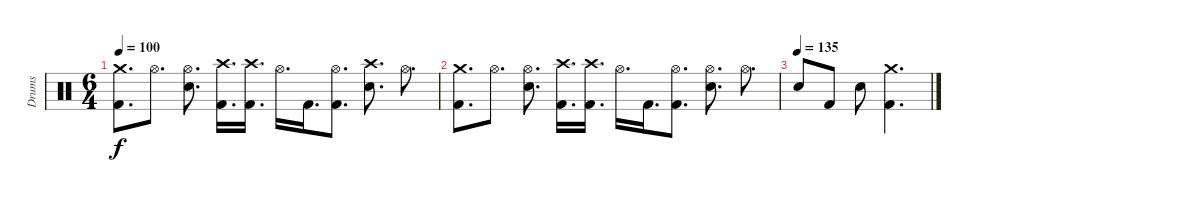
\track ("Drums" "Drums") {instrument percussion}
\staff {score}
\articulation defaults
\ts (6 4)
\tempo 100
\clef neutral
\ks c
("Crash medium (hit)" "Kick (hit) 2").8{d dy f} "Hi-Hat (open)".8{d} ("Hi-Hat (open)" "Electric Snare (hit)").8{d} ("Crash high (hit)" "Kick (hit) 2").16{d} ("Crash high (hit)" "Kick (hit) 2").16{d} "Hi-Hat (open)".16{d} "Kick (hit) 2".16{d} ("Hi-Hat (open)" "Kick (hit) 2").8{d} ("Crash high (hit)" "Electric Snare (hit)").8{d} "Hi-Hat (open)".8{d} |
("Crash medium (hit)" "Kick (hit) 2").8{d} "Hi-Hat (open)".8{d} ("Hi-Hat (open)" "Electric Snare (hit)").8{d} ("Crash high (hit)" "Kick (hit) 2").16{d} ("Crash high (hit)" "Kick (hit) 2").16{d} "Hi-Hat (open)".16{d} "Kick (hit) 2".16{d} ("Hi-Hat (open)" "Kick (hit) 2").8{d} ("Hi-Hat (open)" "Electric Snare (hit)").8{d} "Hi-Hat (open)".8{d} |
\tempo (135)
"Electric Snare (hit)".8 "Kick (hit) 2".8 "Electric Snare (hit)".8 ("Crash medium (hit)" "Kick (hit) 2").4{d}
